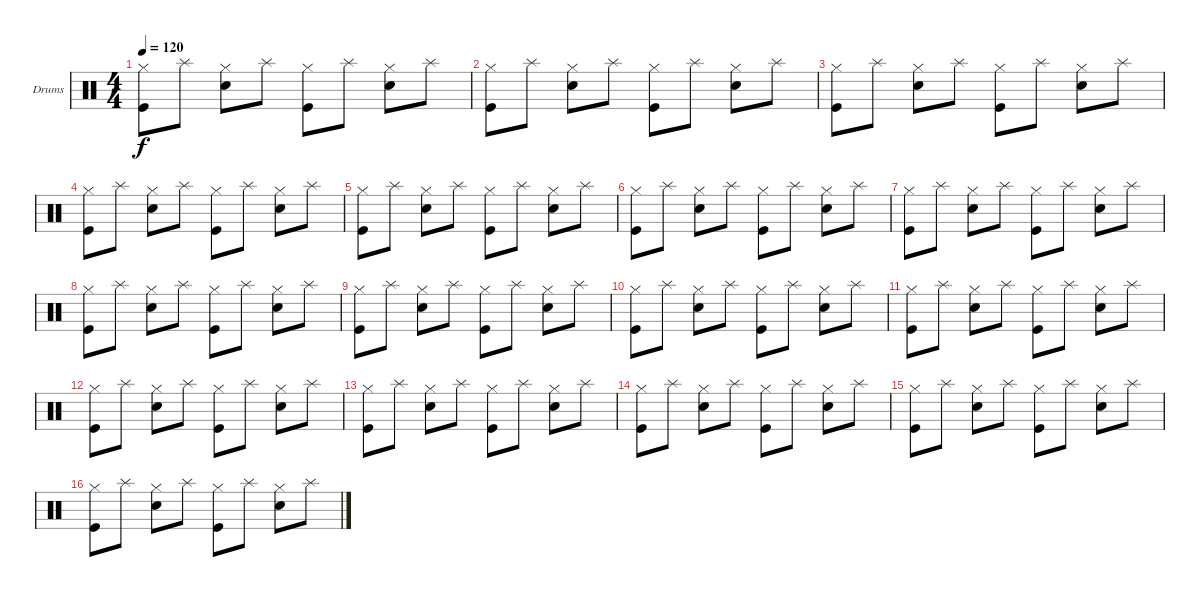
\bracketExtendMode groupsimilarinstruments
\firstSystemTrackNameOrientation horizontal
\otherSystemsTrackNameOrientation horizontal
\track ("Drumkit" "Drums") {instrument percussion}
\staff {score}
\articulation defaults
\ts (4 4)
\tempo 120
\clef neutral
\scale
0.333333
\ks c
("Kick (hit)" "Hi-Hat (closed)").8{dy f} "Splash (hit)".8 ("Snare (hit) 2" "Hi-Hat (closed)").8 "Splash (hit)".8 ("Kick (hit)" "Hi-Hat (closed)").8 "Splash (hit)".8 ("Snare (hit) 2" "Hi-Hat (closed)").8 "Splash (hit)".8 |
\scale
0.333333 ("Kick (hit)" "Hi-Hat (closed)").8 "Splash (hit)".8 ("Snare (hit) 2" "Hi-Hat (closed)").8 "Splash (hit)".8 ("Kick (hit)" "Hi-Hat (closed)").8 "Splash (hit)".8 ("Snare (hit) 2" "Hi-Hat (closed)").8 "Splash (hit)".8 |
\scale
0.333333 ("Kick (hit)" "Hi-Hat (closed)").8 "Splash (hit)".8 ("Snare (hit) 2" "Hi-Hat (closed)").8 "Splash (hit)".8 ("Kick (hit)" "Hi-Hat (closed)").8 "Splash (hit)".8 ("Snare (hit) 2" "Hi-Hat (closed)").8 "Splash (hit)".8 |
\scale
0.333333 ("Kick (hit)" "Hi-Hat (closed)").8 "Splash (hit)".8 ("Snare (hit) 2" "Hi-Hat (closed)").8 "Splash (hit)".8 ("Kick (hit)" "Hi-Hat (closed)").8 "Splash (hit)".8 ("Snare (hit) 2" "Hi-Hat (closed)").8 "Splash (hit)".8 |
\scale
0.333333 ("Kick (hit)" "Hi-Hat (closed)").8 "Splash (hit)".8 ("Snare (hit) 2" "Hi-Hat (closed)").8 "Splash (hit)".8 ("Kick (hit)" "Hi-Hat (closed)").8 "Splash (hit)".8 ("Snare (hit) 2" "Hi-Hat (closed)").8 "Splash (hit)".8 |
\scale
0.333333 ("Kick (hit)" "Hi-Hat (closed)").8 "Splash (hit)".8 ("Snare (hit) 2" "Hi-Hat (closed)").8 "Splash (hit)".8 ("Kick (hit)" "Hi-Hat (closed)").8 "Splash (hit)".8 ("Snare (hit) 2" "Hi-Hat (closed)").8 "Splash (hit)".8 |
\scale
0.333333 ("Kick (hit)" "Hi-Hat (closed)").8 "Splash (hit)".8 ("Snare (hit) 2" "Hi-Hat (closed)").8 "Splash (hit)".8 ("Kick (hit)" "Hi-Hat (closed)").8 "Splash (hit)".8 ("Snare (hit) 2" "Hi-Hat (closed)").8 "Splash (hit)".8 |
\scale
0.333333 ("Kick (hit)" "Hi-Hat (closed)").8 "Splash (hit)".8 ("Snare (hit) 2" "Hi-Hat (closed)").8 "Splash (hit)".8 ("Kick (hit)" "Hi-Hat (closed)").8 "Splash (hit)".8 ("Snare (hit) 2" "Hi-Hat (closed)").8 "Splash (hit)".8 |
\scale
0.333333 ("Kick (hit)" "Hi-Hat (closed)").8 "Splash (hit)".8 ("Snare (hit) 2" "Hi-Hat (closed)").8 "Splash (hit)".8 ("Kick (hit)" "Hi-Hat (closed)").8 "Splash (hit)".8 ("Snare (hit) 2" "Hi-Hat (closed)").8 "Splash (hit)".8 |
\scale
0.333333 ("Kick (hit)" "Hi-Hat (closed)").8 "Splash (hit)".8 ("Snare (hit) 2" "Hi-Hat (closed)").8 "Splash (hit)".8 ("Kick (hit)" "Hi-Hat (closed)").8 "Splash (hit)".8 ("Snare (hit) 2" "Hi-Hat (closed)").8 "Splash (hit)".8 |
\scale
0.333333 ("Kick (hit)" "Hi-Hat (closed)").8 "Splash (hit)".8 ("Snare (hit) 2" "Hi-Hat (closed)").8 "Splash (hit)".8 ("Kick (hit)" "Hi-Hat (closed)").8 "Splash (hit)".8 ("Snare (hit) 2" "Hi-Hat (closed)").8 "Splash (hit)".8 |
\scale
0.333333 ("Kick (hit)" "Hi-Hat (closed)").8 "Splash (hit)".8 ("Snare (hit) 2" "Hi-Hat (closed)").8 "Splash (hit)".8 ("Kick (hit)" "Hi-Hat (closed)").8 "Splash (hit)".8 ("Snare (hit) 2" "Hi-Hat (closed)").8 "Splash (hit)".8 |
\scale
0.333333 ("Kick (hit)" "Hi-Hat (closed)").8 "Splash (hit)".8 ("Snare (hit) 2" "Hi-Hat (closed)").8 "Splash (hit)".8 ("Kick (hit)" "Hi-Hat (closed)").8 "Splash (hit)".8 ("Snare (hit) 2" "Hi-Hat (closed)").8 "Splash (hit)".8 |
\scale
0.333333 ("Kick (hit)" "Hi-Hat (closed)").8 "Splash (hit)".8 ("Snare (hit) 2" "Hi-Hat (closed)").8 "Splash (hit)".8 ("Kick (hit)" "Hi-Hat (closed)").8 "Splash (hit)".8 ("Snare (hit) 2" "Hi-Hat (closed)").8 "Splash (hit)".8 |
\scale
0.333333 ("Kick (hit)" "Hi-Hat (closed)").8 "Splash (hit)".8 ("Snare (hit) 2" "Hi-Hat (closed)").8 "Splash (hit)".8 ("Kick (hit)" "Hi-Hat (closed)").8 "Splash (hit)".8 ("Snare (hit) 2" "Hi-Hat (closed)").8 "Splash (hit)".8 |
\scale
0.333333 ("Kick (hit)" "Hi-Hat (closed)").8 "Splash (hit)".8 ("Snare (hit) 2" "Hi-Hat (closed)").8 "Splash (hit)".8 ("Kick (hit)" "Hi-Hat (closed)").8 "Splash (hit)".8 ("Snare (hit) 2" "Hi-Hat (closed)").8 "Splash (hit)".8
